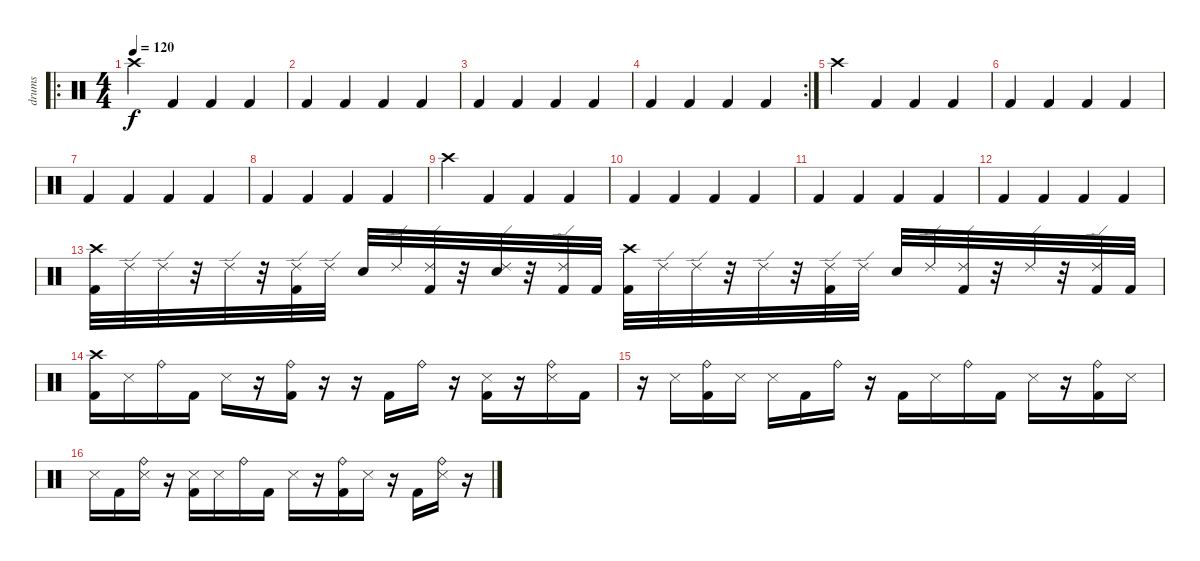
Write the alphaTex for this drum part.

\track ("drums" "drums") {instrument percussion}
\staff {score}
\articulation defaults
\ro
\ts (4 4)
\tempo 120
\clef neutral
\ks c "Crash high (hit)".4{dy f volume 0} "Kick (hit) 2".4 "Kick (hit) 2".4 "Kick (hit) 2".4
|
"Kick (hit) 2".4 "Kick (hit) 2".4 "Kick (hit) 2".4 "Kick (hit) 2".4 |
"Kick (hit) 2".4 "Kick (hit) 2".4 "Kick (hit) 2".4 "Kick (hit) 2".4 |
\rc 2 "Kick (hit) 2".4 "Kick (hit) 2".4 "Kick (hit) 2".4 "Kick (hit) 2".4
|
"Crash high (hit)".4 "Kick (hit) 2".4 "Kick (hit) 2".4 "Kick (hit) 2".4 |
"Kick (hit) 2".4 "Kick (hit) 2".4 "Kick (hit) 2".4 "Kick (hit) 2".4 |
"Kick (hit) 2".4 "Kick (hit) 2".4 "Kick (hit) 2".4 "Kick (hit) 2".4 |
"Kick (hit) 2".4 "Kick (hit) 2".4 "Kick (hit) 2".4 "Kick (hit) 2".4 |
"Crash high (hit)".4 "Kick (hit) 2".4 "Kick (hit) 2".4 "Kick (hit) 2".4 |
"Kick (hit) 2".4 "Kick (hit) 2".4 "Kick (hit) 2".4 "Kick (hit) 2".4 |
"Kick (hit) 2".4 "Kick (hit) 2".4 "Kick (hit) 2".4 "Kick (hit) 2".4 |
"Kick (hit) 2".4 "Kick (hit) 2".4 "Kick (hit) 2".4 "Kick (hit) 2".4 |
("Crash high (hit)" "Kick (hit) 2").32 "Ride (edge) 2".32 "Ride (edge) 2".32 r.32 "Ride (edge) 2".32 r.32 ("Ride (edge) 2" "Kick (hit) 2").32 "Ride (edge) 2".32 "Snare (hit) 2".32 "Ride (edge) 2".32 ("Ride (edge) 2" "Kick (hit) 2").32 r.32 ("Ride (edge) 2" "Snare (hit) 2").32 r.32 ("Ride (edge) 2" "Kick (hit) 2").32 "Kick (hit) 2".32 ("Crash high (hit)" "Kick (hit) 2").32 "Ride (edge) 2".32 "Ride (edge) 2".32 r.32 "Ride (edge) 2".32 r.32 ("Ride (edge) 2" "Kick (hit) 2").32 "Ride (edge) 2".32 "Snare (hit) 2".32 "Ride (edge) 2".32 ("Ride (edge) 2" "Kick (hit) 2").32 r.32 "Ride (edge) 2".32 r.32 ("Ride (edge) 2" "Kick (hit) 2").32 "Kick (hit) 2".32 |
("Crash high (hit)" "Kick (hit) 2").16 "Snare (side stick) 3".16 "Ride (bell)".16 "Kick (hit) 2".16 "Snare (side stick) 3".16 r.16 ("Ride (bell)" "Kick (hit) 2").16 r.16 r.16 "Kick (hit) 2".16 "Ride (bell)".16 r.16 ("Snare (side stick) 3" "Kick (hit) 2").16 r.16 ("Ride (bell)" "Snare (side stick) 3").16 "Kick (hit) 2".16 |
r.16 "Snare (side stick) 3".16 ("Ride (bell)" "Kick (hit) 2").16 "Snare (side stick) 3".16 "Snare (side stick) 3".16 "Kick (hit) 2".16 "Ride (bell)".16 r.16 "Kick (hit) 2".16 "Snare (side stick) 3".16 "Ride (bell)".16 "Kick (hit) 2".16 "Snare (side stick) 3".16 r.16 ("Ride (bell)" "Kick (hit) 2").16 "Snare (side stick) 3".16 |
"Snare (side stick) 3".16 "Kick (hit) 2".16 ("Ride (bell)" "Snare (side stick) 3").16 r.16 ("Snare (side stick) 3" "Kick (hit) 2").16 "Snare (side stick) 3".16 "Ride (bell)".16 "Kick (hit) 2".16 "Snare (side stick) 3".16 r.16 ("Ride (bell)" "Kick (hit) 2").16 "Snare (side stick) 3".16 r.16 "Kick (hit) 2".16 ("Ride (bell)" "Snare (side stick) 3").16 r.16
